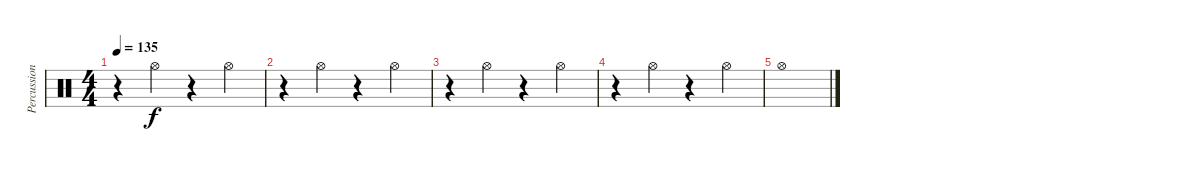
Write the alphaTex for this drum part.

\track ("Percussions 1" "Percussion") {instrument percussion}
\staff {score}
\articulation defaults
\ts (4 4)
\tempo 135
\clef neutral
\ks c
r.4{dy f} "Hi-Hat (open)".4 r.4 "Hi-Hat (open)".4 |
r.4 "Hi-Hat (open)".4 r.4 "Hi-Hat (open)".4 |
r.4 "Hi-Hat (open)".4 r.4 "Hi-Hat (open)".4 |
r.4 "Hi-Hat (open)".4 r.4 "Hi-Hat (open)".4 |
"Hi-Hat (open)".1
